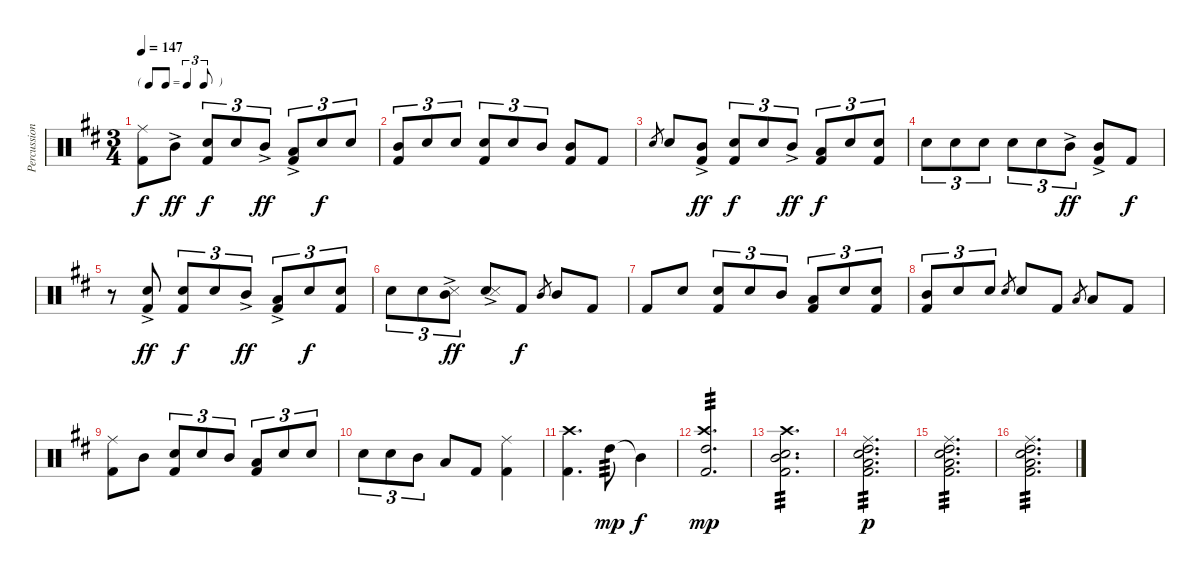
\track ("Percussion" "Percussion") {instrument percussion}
\staff {score}
\articulation defaults
\ts (3 4)
\tf triplet8th
\tempo 147
\clef neutral
\ks d
("Ride (middle)" "Kick (hit) 2").8{dy f} "Mid Tom (hit)"{ac}.8{dy ff} ("Snare (hit) 2" "Kick (hit) 2").8{tu (3 2) dy f} "Snare (hit) 2".8{tu (3 2)} "Mid Tom (hit)"{ac}.8{tu (3 2) dy ff} ("Low Tom (hit)"{ac} "Kick (hit) 2").8{tu (3 2)} "Snare (hit) 2".8{tu (3 2) dy f} "Snare (hit) 2".8{tu (3 2)} |
("Mid Tom (hit)" "Kick (hit) 2").8{tu (3 2)} "Snare (hit) 2".8{tu (3 2)} "Snare (hit) 2".8{tu (3 2)} ("Snare (hit) 2" "Kick (hit) 2").8{tu (3 2)} "Snare (hit) 2".8{tu (3 2)} "Mid Tom (hit)".8{tu (3 2)} ("Mid Tom (hit)" "Kick (hit) 2").8 "Kick (hit) 2".8 |
"Snare (hit) 2".8{gr} "Snare (hit) 2".8 ("Mid Tom (hit)"{ac} "Kick (hit) 2").8{dy ff} ("Snare (hit) 2" "Kick (hit) 2").8{tu (3 2) dy f} "Snare (hit) 2".8{tu (3 2)} "Mid Tom (hit)"{ac}.8{tu (3 2) dy ff} ("Low Tom (hit)" "Kick (hit) 2").8{tu (3 2) dy f} "Snare (hit) 2".8{tu (3 2)} ("Snare (hit) 2" "Kick (hit) 2").8{tu (3 2)} |
"Snare (hit) 2".8{tu (3 2)} "Snare (hit) 2".8{tu (3 2)} "Snare (hit) 2".8{tu (3 2)} "Snare (hit) 2".8{tu (3 2)} "Snare (hit) 2".8{tu (3 2)} "Mid Tom (hit)"{ac}.8{tu (3 2) dy ff} ("Mid Tom (hit)"{ac} "Kick (hit) 2"{ac}).8 "Kick (hit) 2".8{dy f} |
r.8 ("Snare (hit) 2"{ac} "Kick (hit) 2"{ac}).8{dy ff} ("Snare (hit) 2" "Kick (hit) 2").8{tu (3 2) dy f} "Snare (hit) 2".8{tu (3 2)} "Mid Tom (hit)"{ac}.8{tu (3 2) dy ff} ("Low Tom (hit)"{ac} "Kick (hit) 2").8{tu (3 2)} "Snare (hit) 2".8{tu (3 2) dy f} ("Snare (hit) 2" "Kick (hit) 2").8{tu (3 2)} |
"Snare (hit) 2".8{tu (3 2)} "Snare (hit) 2".8{tu (3 2)} ("Mid Tom (hit)"{ac} "Snare (side stick) 3").8{tu (3 2) dy ff} ("Snare (hit) 2"{ac} "Snare (side stick) 3").8 "Kick (hit) 2".8{dy f} "Mid Tom (hit)".8{gr} "Mid Tom (hit)".8 "Kick (hit) 2".8 |
"Kick (hit) 2".8 "Snare (hit) 2".8 ("Snare (hit) 2" "Kick (hit) 2").8{tu (3 2)} "Snare (hit) 2".8{tu (3 2)} "Mid Tom (hit)".8{tu (3 2)} ("Low Floor Tom (hit)" "Kick (hit) 2").8{tu (3 2)} "Snare (hit) 2".8{tu (3 2)} ("Snare (hit) 2" "Kick (hit) 2").8{tu (3 2)} |
("Mid Tom (hit)" "Kick (hit) 2").8{tu (3 2)} "Snare (hit) 2".8{tu (3 2)} "Snare (hit) 2".8{tu (3 2)} "Snare (hit) 2".8{gr} "Snare (hit) 2".8 "Kick (hit) 2".8 "Low Floor Tom (hit)".8{gr} "Low Floor Tom (hit)".8 "Kick (hit) 2".8 |
("Ride (middle)" "Kick (hit) 2").8 "Mid Tom (hit)".8 ("Snare (hit) 2" "Kick (hit) 2").8{tu (3 2)} "Snare (hit) 2".8{tu (3 2)} "Mid Tom (hit)".8{tu (3 2)} ("Low Floor Tom (hit)" "Kick (hit) 2").8{tu (3 2)} "Snare (hit) 2".8{tu (3 2)} "Snare (hit) 2".8{tu (3 2)} |
"Snare (hit) 2".8{tu (3 2)} "Snare (hit) 2".8{tu (3 2)} "Mid Tom (hit)".8{tu (3 2)} "Low Floor Tom (hit)".8 "Kick (hit) 2".8 ("Ride (middle)" "Kick (hit) 2").4 |
("Crash high (hit)" "Kick (hit) 2").4{d} "High Tom (hit)".8{tp 3 dy mp} "Mid Tom (hit)"{t}.4{dy f} |
("Crash high (hit)" "High Tom (hit)" "Kick (hit) 2").2{d tp 3 dy mp} |
("Snare (hit) 2" "Crash high (hit)" "Mid Tom (hit)" "Kick (hit) 2").2{d tp 3} |
("Snare (hit) 2" "Ride (middle)" "High Tom (hit)" "Kick (hit) 2" "Low Floor Tom (hit)").2{d tp 3 dy p} |
("Snare (hit) 2" "Ride (middle)" "High Tom (hit)" "Kick (hit) 2" "Low Floor Tom (hit)").2{d tp 3} |
("Snare (hit) 2" "Ride (middle)" "High Tom (hit)" "Kick (hit) 2" "Low Floor Tom (hit)").2{d tp 3}
